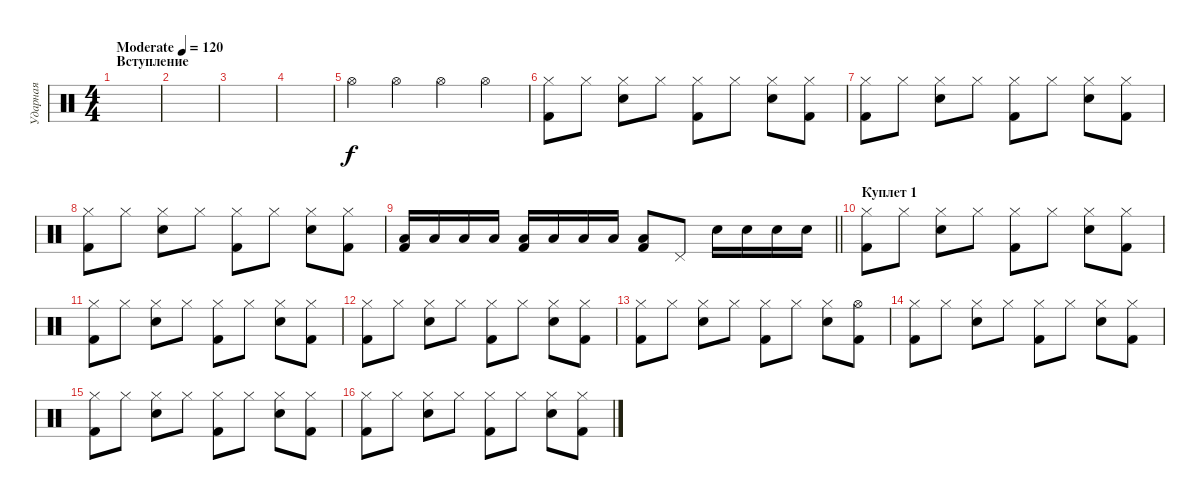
\track ("Ударная" "Ударная") {instrument percussion}
\staff {score}
\articulation defaults
\ts (4 4)
\section ("" "Вступление")
\tempo (120 "Moderate")
\clef neutral
\ks c
|
|
|
|
"Hi-Hat (open)".4 "Hi-Hat (open)".4 "Hi-Hat (open)".4 "Hi-Hat (open)".4 |
("Hi-Hat (closed)" "Kick (hit) 2").8 "Hi-Hat (closed)".8 ("Hi-Hat (closed)" "Electric Snare (hit)").8 "Hi-Hat (closed)".8 ("Hi-Hat (closed)" "Kick (hit) 2").8 "Hi-Hat (closed)".8 ("Hi-Hat (closed)" "Electric Snare (hit)").8 ("Hi-Hat (closed)" "Kick (hit) 2").8 |
("Hi-Hat (closed)" "Kick (hit) 2").8 "Hi-Hat (closed)".8 ("Hi-Hat (closed)" "Electric Snare (hit)").8 "Hi-Hat (closed)".8 ("Hi-Hat (closed)" "Kick (hit) 2").8 "Hi-Hat (closed)".8 ("Hi-Hat (closed)" "Electric Snare (hit)").8 ("Hi-Hat (closed)" "Kick (hit) 2").8 |
("Hi-Hat (closed)" "Kick (hit) 2").8 "Hi-Hat (closed)".8 ("Hi-Hat (closed)" "Electric Snare (hit)").8 "Hi-Hat (closed)".8 ("Hi-Hat (closed)" "Kick (hit) 2").8 "Hi-Hat (closed)".8 ("Hi-Hat (closed)" "Electric Snare (hit)").8 ("Hi-Hat (closed)" "Kick (hit) 2").8 |
\barLineRight lightlight
("Low Tom (hit)" "Kick (hit) 2").16 "Low Tom (hit)".16 "Low Tom (hit)".16 "Low Tom (hit)".16 ("Low Tom (hit)" "Kick (hit) 2").16 "Low Tom (hit)".16 "Low Tom (hit)".16 "Low Tom (hit)".16 ("Low Tom (hit)" "Kick (hit) 2").8 "Pedal Hi-Hat (hit)".8 "Snare (hit) 2".16 "Snare (hit) 2".16 "Snare (hit) 2".16 "Snare (hit) 2".16 |
\section ("" "Куплет 1")
("Hi-Hat (closed)" "Kick (hit) 2").8 "Hi-Hat (closed)".8 ("Hi-Hat (closed)" "Electric Snare (hit)").8 "Hi-Hat (closed)".8 ("Hi-Hat (closed)" "Kick (hit) 2").8 "Hi-Hat (closed)".8 ("Hi-Hat (closed)" "Electric Snare (hit)").8 ("Hi-Hat (closed)" "Kick (hit) 2").8 |
("Hi-Hat (closed)" "Kick (hit) 2").8 "Hi-Hat (closed)".8 ("Hi-Hat (closed)" "Electric Snare (hit)").8 "Hi-Hat (closed)".8 ("Hi-Hat (closed)" "Kick (hit) 2").8 "Hi-Hat (closed)".8 ("Hi-Hat (closed)" "Electric Snare (hit)").8 ("Hi-Hat (closed)" "Kick (hit) 2").8 |
("Hi-Hat (closed)" "Kick (hit) 2").8 "Hi-Hat (closed)".8 ("Hi-Hat (closed)" "Electric Snare (hit)").8 "Hi-Hat (closed)".8 ("Hi-Hat (closed)" "Kick (hit) 2").8 "Hi-Hat (closed)".8 ("Hi-Hat (closed)" "Electric Snare (hit)").8 ("Hi-Hat (closed)" "Kick (hit) 2").8 |
("Hi-Hat (closed)" "Kick (hit) 2").8 "Hi-Hat (closed)".8 ("Hi-Hat (closed)" "Electric Snare (hit)").8 "Hi-Hat (closed)".8 ("Hi-Hat (closed)" "Kick (hit) 2").8 "Hi-Hat (closed)".8 ("Hi-Hat (closed)" "Electric Snare (hit)").8 ("Hi-Hat (open)" "Kick (hit) 2").8 |
("Hi-Hat (closed)" "Kick (hit) 2").8 "Hi-Hat (closed)".8 ("Hi-Hat (closed)" "Electric Snare (hit)").8 "Hi-Hat (closed)".8 ("Hi-Hat (closed)" "Kick (hit) 2").8 "Hi-Hat (closed)".8 ("Hi-Hat (closed)" "Electric Snare (hit)").8 ("Hi-Hat (closed)" "Kick (hit) 2").8 |
("Hi-Hat (closed)" "Kick (hit) 2").8 "Hi-Hat (closed)".8 ("Hi-Hat (closed)" "Electric Snare (hit)").8 "Hi-Hat (closed)".8 ("Hi-Hat (closed)" "Kick (hit) 2").8 "Hi-Hat (closed)".8 ("Hi-Hat (closed)" "Electric Snare (hit)").8 ("Hi-Hat (closed)" "Kick (hit) 2").8 |
("Hi-Hat (closed)" "Kick (hit) 2").8 "Hi-Hat (closed)".8 ("Hi-Hat (closed)" "Electric Snare (hit)").8 "Hi-Hat (closed)".8 ("Hi-Hat (closed)" "Kick (hit) 2").8 "Hi-Hat (closed)".8 ("Hi-Hat (closed)" "Electric Snare (hit)").8 ("Hi-Hat (closed)" "Kick (hit) 2").8
